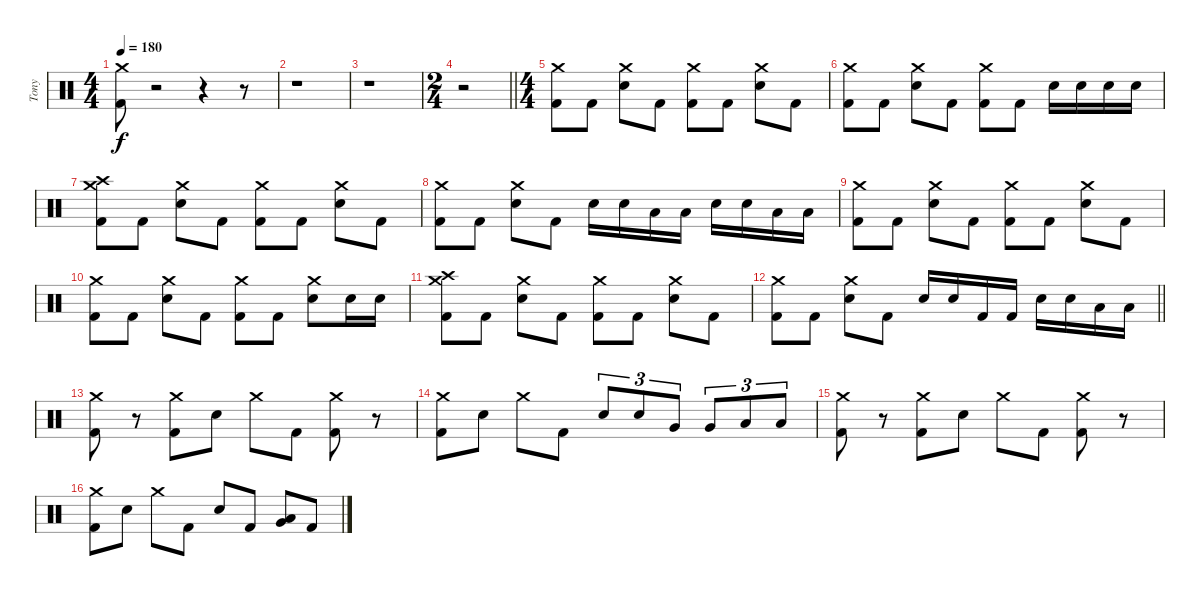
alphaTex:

\track ("Tony" "Tony") {instrument percussion}
\staff {score}
\articulation defaults
\ts (4 4)
\tempo 180
\clef neutral
\ks c
("Kick (hit) 2" "Crash medium (hit)").8{dy f} r.2 r.4 r.8 |
r.1 |
r.1 |
\ts (2 4)
\barLineRight lightlight
r.2 |
\ts (4 4)
\section ("" "")
("Crash medium (hit)" "Kick (hit) 2").8 "Kick (hit) 2".8 ("Crash medium (hit)" "Electric Snare (hit)").8 "Kick (hit) 2".8 ("Crash medium (hit)" "Kick (hit) 2").8 "Kick (hit) 2".8 ("Crash medium (hit)" "Electric Snare (hit)").8 "Kick (hit) 2".8 |
("Crash medium (hit)" "Kick (hit) 2").8 "Kick (hit) 2".8 ("Crash medium (hit)" "Electric Snare (hit)").8 "Kick (hit) 2".8 ("Crash medium (hit)" "Kick (hit) 2").8 "Kick (hit) 2".8 "Electric Snare (hit)".16 "Electric Snare (hit)".16 "Electric Snare (hit)".16 "Electric Snare (hit)".16 |
("Crash medium (hit)" "Crash high (hit)" "Kick (hit) 2").8 "Kick (hit) 2".8 ("Crash medium (hit)" "Electric Snare (hit)").8 "Kick (hit) 2".8 ("Crash medium (hit)" "Kick (hit) 2").8 "Kick (hit) 2".8 ("Crash medium (hit)" "Electric Snare (hit)").8 "Kick (hit) 2".8 |
("Crash medium (hit)" "Kick (hit) 2").8 "Kick (hit) 2".8 ("Crash medium (hit)" "Electric Snare (hit)").8 "Kick (hit) 2".8 "Electric Snare (hit)".16 "Electric Snare (hit)".16 "Low Tom (hit)".16 "Low Tom (hit)".16 "Electric Snare (hit)".16 "Electric Snare (hit)".16 "Low Floor Tom (hit)".16 "Low Floor Tom (hit)".16 |
("Crash medium (hit)" "Kick (hit) 2").8 "Kick (hit) 2".8 ("Crash medium (hit)" "Electric Snare (hit)").8 "Kick (hit) 2".8 ("Crash medium (hit)" "Kick (hit) 2").8 "Kick (hit) 2".8 ("Crash medium (hit)" "Electric Snare (hit)").8 "Kick (hit) 2".8 |
("Crash medium (hit)" "Kick (hit) 2").8 "Kick (hit) 2".8 ("Crash medium (hit)" "Electric Snare (hit)").8 "Kick (hit) 2".8 ("Crash medium (hit)" "Kick (hit) 2").8 "Kick (hit) 2".8 ("Crash medium (hit)" "Electric Snare (hit)").8 "Electric Snare (hit)".16 "Electric Snare (hit)".16 |
("Crash medium (hit)" "Crash high (hit)" "Kick (hit) 2").8 "Kick (hit) 2".8 ("Crash medium (hit)" "Electric Snare (hit)").8 "Kick (hit) 2".8 ("Crash medium (hit)" "Kick (hit) 2").8 "Kick (hit) 2".8 ("Crash medium (hit)" "Electric Snare (hit)").8 "Kick (hit) 2".8 |
\barLineRight lightlight
("Crash medium (hit)" "Kick (hit) 2").8 "Kick (hit) 2".8 ("Crash medium (hit)" "Electric Snare (hit)").8 "Kick (hit) 2".8 "Electric Snare (hit)".16 "Electric Snare (hit)".16 "Kick (hit) 2".16 "Kick (hit) 2".16 "Electric Snare (hit)".16 "Electric Snare (hit)".16 "Low Floor Tom (hit)".16 "Low Floor Tom (hit)".16 |
\section ("" "")
("Crash medium (hit)" "Kick (hit) 2").8 r.8 ("Crash medium (hit)" "Kick (hit) 2").8 "Electric Snare (hit)".8 "Crash medium (hit)".8 "Kick (hit) 2".8 ("Crash medium (hit)" "Kick (hit) 2").8 r.8 |
("Crash medium (hit)" "Kick (hit) 2").8 "Electric Snare (hit)".8 "Crash medium (hit)".8 "Kick (hit) 2".8 "Electric Snare (hit)".8{tu (3 2)} "Electric Snare (hit)".8{tu (3 2)} "Very Low Tom (hit)".8{tu (3 2)} "Very Low Tom (hit)".8{tu (3 2)} "Low Floor Tom (hit)".8{tu (3 2)} "Low Floor Tom (hit)".8{tu (3 2)} |
("Crash medium (hit)" "Kick (hit) 2").8 r.8 ("Crash medium (hit)" "Kick (hit) 2").8 "Electric Snare (hit)".8 "Crash medium (hit)".8 "Kick (hit) 2".8 ("Crash medium (hit)" "Kick (hit) 2").8 r.8 |
("Crash medium (hit)" "Kick (hit) 2").8 "Electric Snare (hit)".8 "Crash medium (hit)".8 "Kick (hit) 2".8 "Electric Snare (hit)".8 "Kick (hit) 2".8 ("Low Floor Tom (hit)" "Very Low Tom (hit)").8 "Kick (hit) 2".8
